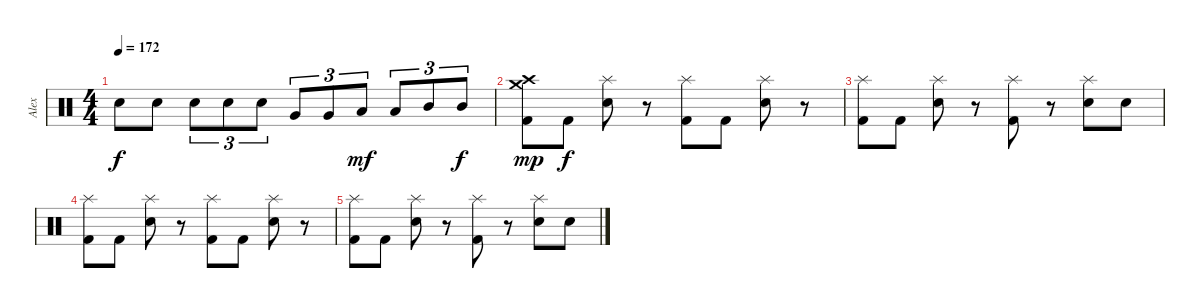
\track ("Alex" "Alex") {instrument percussion}
\staff {score}
\articulation defaults
\ts (4 4)
\tempo 172
\clef neutral
\ks c "Electric Snare (hit)".8{dy f} "Electric Snare (hit)".8 "Electric Snare (hit)".8{tu (3 2)} "Electric Snare (hit)".8{tu (3 2)} "Electric Snare (hit)".8{tu (3 2)} "Very Low Tom (hit)".8{tu (3 2)} "Very Low Tom (hit)".8{tu (3 2)} "Low Tom (hit)".8{tu (3 2) dy mf} "Low Tom (hit)".8{tu (3 2)} "Mid Tom (hit)".8{tu (3 2)} "Mid Tom (hit)".8{tu (3 2) dy f}
|
("Crash high (hit)" "Crash medium (hit)" "Kick (hit) 2").8{dy mp} "Kick (hit) 2".8{dy f} ("Splash (hit)" "Electric Snare (hit)").8 r.8 ("Splash (hit)" "Kick (hit) 2").8 "Kick (hit) 2".8 ("Splash (hit)" "Electric Snare (hit)").8 r.8 |
("Splash (hit)" "Kick (hit) 2").8 "Kick (hit) 2".8 ("Splash (hit)" "Electric Snare (hit)").8 r.8 ("Splash (hit)" "Kick (hit) 2").8 r.8 ("Splash (hit)" "Electric Snare (hit)").8 "Electric Snare (hit)".8 |
("Splash (hit)" "Kick (hit) 2").8 "Kick (hit) 2".8 ("Splash (hit)" "Electric Snare (hit)").8 r.8 ("Splash (hit)" "Kick (hit) 2").8 "Kick (hit) 2".8 ("Splash (hit)" "Electric Snare (hit)").8 r.8 |
("Splash (hit)" "Kick (hit) 2").8 "Kick (hit) 2".8 ("Splash (hit)" "Electric Snare (hit)").8 r.8 ("Splash (hit)" "Kick (hit) 2").8 r.8 ("Splash (hit)" "Electric Snare (hit)").8 "Electric Snare (hit)".8
